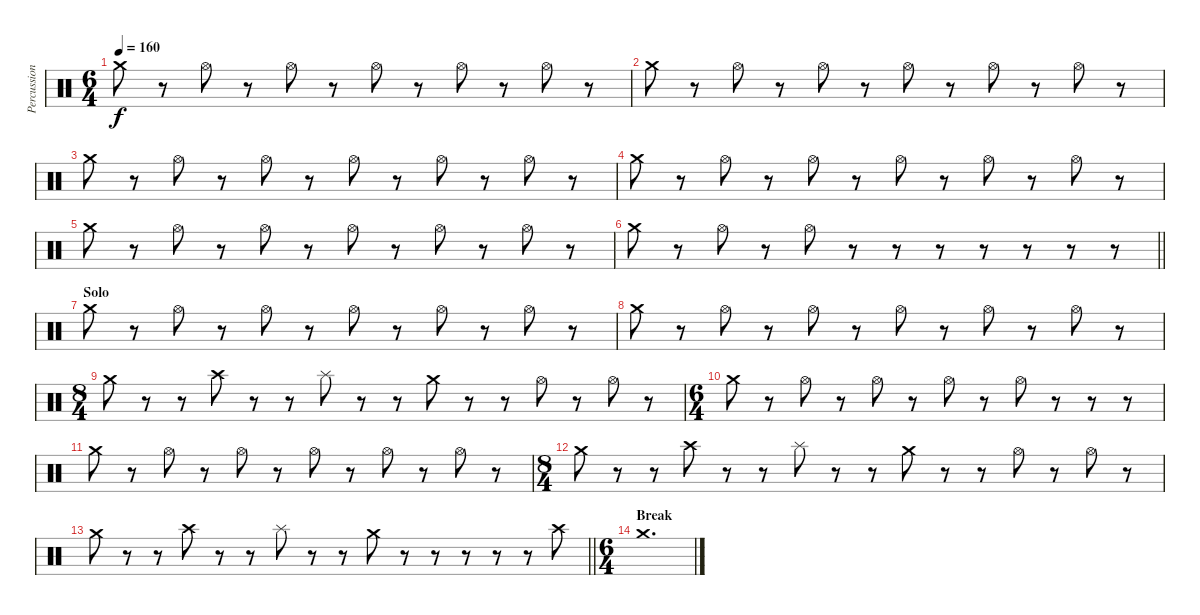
\track ("Percussion" "Percussion") {instrument percussion}
\staff {score}
\articulation defaults
\ts (6 4)
\tempo 160
\clef neutral
\ks c "Crash medium (hit)".8{dy f}
r.8 "Hi-Hat (open)".8 r.8 "Hi-Hat (open)".8 r.8 "Hi-Hat (open)".8 r.8 "Hi-Hat (open)".8 r.8 "Hi-Hat (open)".8 r.8 |
"Crash medium (hit)".8 r.8 "Hi-Hat (open)".8 r.8 "Hi-Hat (open)".8 r.8 "Hi-Hat (open)".8 r.8 "Hi-Hat (open)".8 r.8 "Hi-Hat (open)".8 r.8 |
"Crash medium (hit)".8 r.8 "Hi-Hat (open)".8 r.8 "Hi-Hat (open)".8 r.8 "Hi-Hat (open)".8 r.8 "Hi-Hat (open)".8 r.8 "Hi-Hat (open)".8 r.8 |
"Crash medium (hit)".8 r.8 "Hi-Hat (open)".8 r.8 "Hi-Hat (open)".8 r.8 "Hi-Hat (open)".8 r.8 "Hi-Hat (open)".8 r.8 "Hi-Hat (open)".8 r.8 |
"Crash medium (hit)".8 r.8 "Hi-Hat (open)".8 r.8 "Hi-Hat (open)".8 r.8 "Hi-Hat (open)".8 r.8 "Hi-Hat (open)".8 r.8 "Hi-Hat (open)".8 r.8 |
\barLineRight lightlight "Crash medium (hit)".8
r.8 "Hi-Hat (open)".8 r.8 "Hi-Hat (open)".8 r.8 r.8 r.8 r.8 r.8 r.8 r.8 |
\section ("" "Solo")
"Crash medium (hit)".8 r.8 "Hi-Hat (open)".8 r.8 "Hi-Hat (open)".8 r.8 "Hi-Hat (open)".8 r.8 "Hi-Hat (open)".8 r.8 "Hi-Hat (open)".8 r.8 |
"Crash medium (hit)".8 r.8 "Hi-Hat (open)".8 r.8 "Hi-Hat (open)".8 r.8 "Hi-Hat (open)".8 r.8 "Hi-Hat (open)".8 r.8 "Hi-Hat (open)".8 r.8 |
\ts (8 4)
"Crash medium (hit)".8 r.8 r.8 "Crash high (hit)".8 r.8 r.8 "Splash (hit)".8 r.8 r.8 "Crash medium (hit)".8 r.8 r.8 "Hi-Hat (open)".8 r.8 "Hi-Hat (open)".8 r.8 |
\ts (6 4)
"Crash medium (hit)".8 r.8 "Hi-Hat (open)".8 r.8 "Hi-Hat (open)".8 r.8 "Hi-Hat (open)".8 r.8 "Hi-Hat (open)".8 r.8 r.8 r.8 |
"Crash medium (hit)".8 r.8 "Hi-Hat (open)".8 r.8 "Hi-Hat (open)".8 r.8 "Hi-Hat (open)".8 r.8 "Hi-Hat (open)".8 r.8 "Hi-Hat (open)".8 r.8 |
\ts (8 4)
"Crash medium (hit)".8 r.8 r.8 "Crash high (hit)".8 r.8 r.8 "Splash (hit)".8 r.8 r.8 "Crash medium (hit)".8 r.8 r.8 "Hi-Hat (open)".8 r.8 "Hi-Hat (open)".8 r.8 |
\barLineRight lightlight "Crash medium (hit)".8
r.8 r.8 "Crash high (hit)".8 r.8 r.8 "Splash (hit)".8 r.8 r.8 "Crash medium (hit)".8 r.8 r.8 r.8 r.8 r.8 "Crash high (hit)".8 |
\ts (6 4)
\section ("" "Break")
"Crash medium (hit)".1{d}
